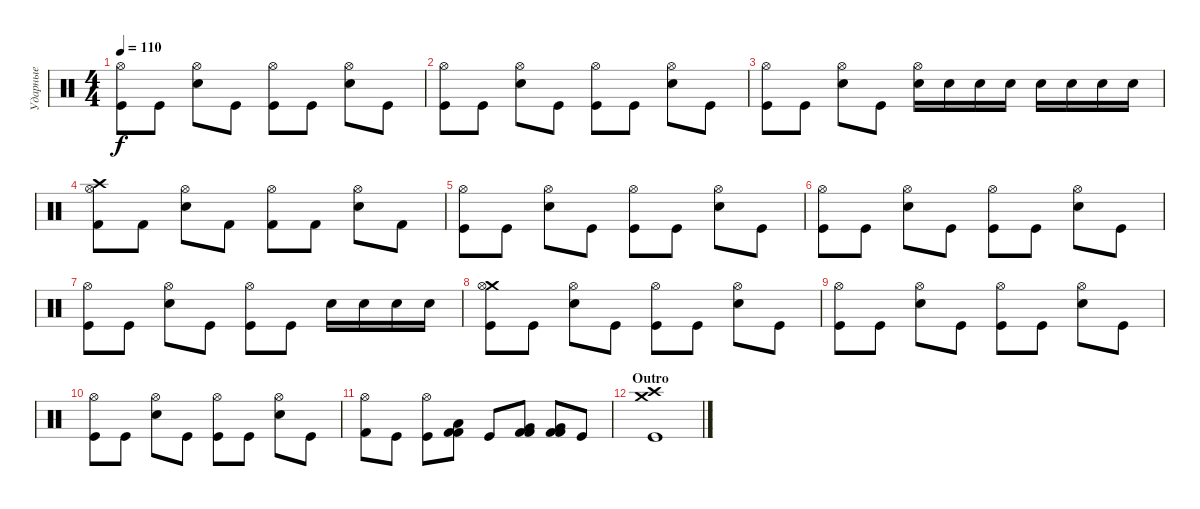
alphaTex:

\track ("Ударные" "Ударные") {instrument percussion}
\staff {score}
\articulation defaults
\ts (4 4)
\tempo 110
\clef neutral
\ks c
("Hi-Hat (open)" "Kick (hit)").8{dy f} "Kick (hit)".8 ("Hi-Hat (open)" "Electric Snare (hit)").8 "Kick (hit)".8 ("Hi-Hat (open)" "Kick (hit)").8 "Kick (hit)".8 ("Hi-Hat (open)" "Electric Snare (hit)").8 "Kick (hit)".8 |
("Hi-Hat (open)" "Kick (hit)").8 "Kick (hit)".8 ("Hi-Hat (open)" "Electric Snare (hit)").8 "Kick (hit)".8 ("Hi-Hat (open)" "Kick (hit)").8 "Kick (hit)".8 ("Hi-Hat (open)" "Electric Snare (hit)").8 "Kick (hit)".8 |
("Hi-Hat (open)" "Kick (hit)").8 "Kick (hit)".8 ("Hi-Hat (open)" "Electric Snare (hit)").8 "Kick (hit)".8 ("Hi-Hat (open)" "Electric Snare (hit)").16 "Electric Snare (hit)".16 "Electric Snare (hit)".16 "Electric Snare (hit)".16 "Electric Snare (hit)".16 "Electric Snare (hit)".16 "Electric Snare (hit)".16 "Electric Snare (hit)".16 |
("Crash high (hit)" "Hi-Hat (open)" "Kick (hit) 2").8 "Kick (hit) 2".8 ("Hi-Hat (open)" "Electric Snare (hit)").8 "Kick (hit) 2".8 ("Hi-Hat (open)" "Kick (hit) 2").8 "Kick (hit) 2".8 ("Hi-Hat (open)" "Electric Snare (hit)").8 "Kick (hit) 2".8 |
("Hi-Hat (open)" "Kick (hit)").8 "Kick (hit)".8 ("Hi-Hat (open)" "Electric Snare (hit)").8 "Kick (hit)".8 ("Hi-Hat (open)" "Kick (hit)").8 "Kick (hit)".8 ("Hi-Hat (open)" "Electric Snare (hit)").8 "Kick (hit)".8 |
("Hi-Hat (open)" "Kick (hit)").8 "Kick (hit)".8 ("Hi-Hat (open)" "Electric Snare (hit)").8 "Kick (hit)".8 ("Hi-Hat (open)" "Kick (hit)").8 "Kick (hit)".8 ("Hi-Hat (open)" "Electric Snare (hit)").8 "Kick (hit)".8 |
("Hi-Hat (open)" "Kick (hit)").8 "Kick (hit)".8 ("Hi-Hat (open)" "Electric Snare (hit)").8 "Kick (hit)".8 ("Hi-Hat (open)" "Kick (hit)").8 "Kick (hit)".8 "Electric Snare (hit)".16 "Electric Snare (hit)".16 "Electric Snare (hit)".16 "Electric Snare (hit)".16 |
("Crash medium (hit)" "Hi-Hat (open)" "Kick (hit)").8 "Kick (hit)".8 ("Hi-Hat (open)" "Electric Snare (hit)").8 "Kick (hit)".8 ("Hi-Hat (open)" "Kick (hit)").8 "Kick (hit)".8 ("Hi-Hat (open)" "Electric Snare (hit)").8 "Kick (hit)".8 |
("Hi-Hat (open)" "Kick (hit)").8 "Kick (hit)".8 ("Hi-Hat (open)" "Electric Snare (hit)").8 "Kick (hit)".8 ("Hi-Hat (open)" "Kick (hit)").8 "Kick (hit)".8 ("Hi-Hat (open)" "Electric Snare (hit)").8 "Kick (hit)".8 |
("Hi-Hat (open)" "Kick (hit)").8 "Kick (hit)".8 ("Hi-Hat (open)" "Electric Snare (hit)").8 "Kick (hit)".8 ("Hi-Hat (open)" "Kick (hit)").8 "Kick (hit)".8 ("Hi-Hat (open)" "Electric Snare (hit)").8 "Kick (hit)".8 |
("Hi-Hat (open)" "Kick (hit) 2").8 "Kick (hit)".8 ("Hi-Hat (open)" "Kick (hit)").8 ("Low Floor Tom (hit)" "Kick (hit) 2" "Kick (hit) 2").8 "Kick (hit)".8 ("Very Low Tom (hit)" "Kick (hit) 2" "Kick (hit) 2").8 ("Very Low Tom (hit)" "Kick (hit) 2" "Kick (hit) 2").8 "Kick (hit)".8 |
\section ("" "Outro")
("Crash medium (hit)" "Crash high (hit)" "Kick (hit)").1
